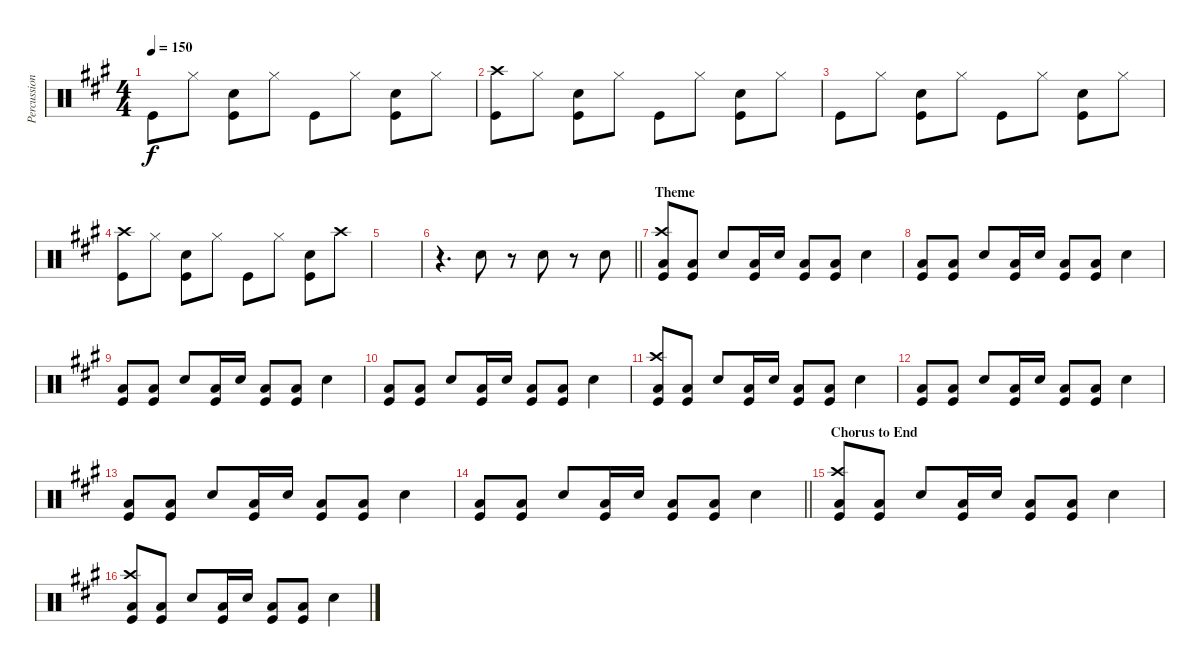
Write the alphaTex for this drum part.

\track ("Percussion" "Percussion") {instrument percussion}
\staff {score}
\articulation defaults
\ts (4 4)
\tempo 150
\clef neutral
\ks a "Kick (hit)".8{dy f} "Hi-Hat (closed)".8
("Kick (hit)" "Snare (hit) 2").8 "Hi-Hat (closed)".8 "Kick (hit)".8 "Hi-Hat (closed)".8 ("Kick (hit)" "Snare (hit) 2").8 "Hi-Hat (closed)".8 |
("Kick (hit)" "Crash high (hit)").8 "Hi-Hat (closed)".8 ("Kick (hit)" "Snare (hit) 2").8 "Hi-Hat (closed)".8 "Kick (hit)".8 "Hi-Hat (closed)".8 ("Kick (hit)" "Snare (hit) 2").8 "Hi-Hat (closed)".8 |
"Kick (hit)".8 "Hi-Hat (closed)".8 ("Kick (hit)" "Snare (hit) 2").8 "Hi-Hat (closed)".8 "Kick (hit)".8 "Hi-Hat (closed)".8 ("Kick (hit)" "Snare (hit) 2").8 "Hi-Hat (closed)".8 |
("Kick (hit)" "Crash high (hit)").8 "Hi-Hat (closed)".8 ("Kick (hit)" "Snare (hit) 2").8 "Hi-Hat (closed)".8 "Kick (hit)".8 "Hi-Hat (closed)".8 ("Kick (hit)" "Snare (hit) 2").8 "Crash high (hit)".8 |
|
\barLineRight lightlight
r.4{d} "Snare (hit) 2".8 r.8 "Snare (hit) 2".8 r.8 "Snare (hit) 2".8 |
\section ("" "Theme")
("Kick (hit)" "Low Tom (hit)" "Crash high (hit)").8 ("Kick (hit)" "Low Tom (hit)").8 "Snare (hit) 2".8 ("Kick (hit)" "Low Tom (hit)").16 "Snare (hit) 2".16 ("Kick (hit)" "Low Tom (hit)").8 ("Kick (hit)" "Low Tom (hit)").8 "Snare (hit) 2".4 |
("Kick (hit)" "Low Tom (hit)").8 ("Kick (hit)" "Low Tom (hit)").8 "Snare (hit) 2".8 ("Kick (hit)" "Low Tom (hit)").16 "Snare (hit) 2".16 ("Kick (hit)" "Low Tom (hit)").8 ("Kick (hit)" "Low Tom (hit)").8 "Snare (hit) 2".4 |
("Kick (hit)" "Low Tom (hit)").8 ("Kick (hit)" "Low Tom (hit)").8 "Snare (hit) 2".8 ("Kick (hit)" "Low Tom (hit)").16 "Snare (hit) 2".16 ("Kick (hit)" "Low Tom (hit)").8 ("Kick (hit)" "Low Tom (hit)").8 "Snare (hit) 2".4 |
("Kick (hit)" "Low Tom (hit)").8 ("Kick (hit)" "Low Tom (hit)").8 "Snare (hit) 2".8 ("Kick (hit)" "Low Tom (hit)").16 "Snare (hit) 2".16 ("Kick (hit)" "Low Tom (hit)").8 ("Kick (hit)" "Low Tom (hit)").8 "Snare (hit) 2".4 |
("Kick (hit)" "Low Tom (hit)" "Crash high (hit)").8 ("Kick (hit)" "Low Tom (hit)").8 "Snare (hit) 2".8 ("Kick (hit)" "Low Tom (hit)").16 "Snare (hit) 2".16 ("Kick (hit)" "Low Tom (hit)").8 ("Kick (hit)" "Low Tom (hit)").8 "Snare (hit) 2".4 |
("Kick (hit)" "Low Tom (hit)").8 ("Kick (hit)" "Low Tom (hit)").8 "Snare (hit) 2".8 ("Kick (hit)" "Low Tom (hit)").16 "Snare (hit) 2".16 ("Kick (hit)" "Low Tom (hit)").8 ("Kick (hit)" "Low Tom (hit)").8 "Snare (hit) 2".4 |
("Kick (hit)" "Low Tom (hit)").8 ("Kick (hit)" "Low Tom (hit)").8 "Snare (hit) 2".8 ("Kick (hit)" "Low Tom (hit)").16 "Snare (hit) 2".16 ("Kick (hit)" "Low Tom (hit)").8 ("Kick (hit)" "Low Tom (hit)").8 "Snare (hit) 2".4 |
\barLineRight lightlight
("Kick (hit)" "Low Tom (hit)").8 ("Kick (hit)" "Low Tom (hit)").8 "Snare (hit) 2".8 ("Kick (hit)" "Low Tom (hit)").16 "Snare (hit) 2".16 ("Kick (hit)" "Low Tom (hit)").8 ("Kick (hit)" "Low Tom (hit)").8 "Snare (hit) 2".4 |
\section ("" "Chorus to End")
("Kick (hit)" "Low Tom (hit)" "Crash high (hit)").8 ("Kick (hit)" "Low Tom (hit)").8 "Snare (hit) 2".8 ("Kick (hit)" "Low Tom (hit)").16 "Snare (hit) 2".16 ("Kick (hit)" "Low Tom (hit)").8 ("Kick (hit)" "Low Tom (hit)").8 "Snare (hit) 2".4 |
("Kick (hit)" "Low Tom (hit)" "Crash high (hit)").8 ("Kick (hit)" "Low Tom (hit)").8 "Snare (hit) 2".8 ("Kick (hit)" "Low Tom (hit)").16 "Snare (hit) 2".16 ("Kick (hit)" "Low Tom (hit)").8 ("Kick (hit)" "Low Tom (hit)").8 "Snare (hit) 2".4
